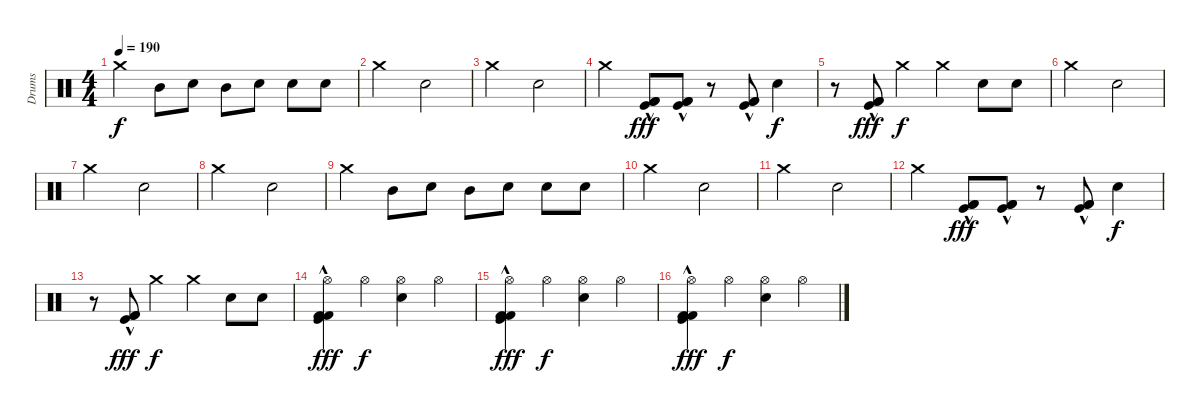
\track ("Drums" "Drums") {instrument percussion}
\staff {score}
\articulation defaults
\ts (4 4)
\tempo 190
\clef neutral
\ks c "Crash medium (hit)".4{dy f} "Mid Tom (hit)".8 "Snare (hit) 2".8 "Mid Tom (hit)".8 "Snare (hit) 2".8 "Snare (hit) 2".8 "Snare (hit) 2".8
|
"Crash medium (hit)".2 "Snare (hit) 2".2 |
"Crash medium (hit)".2 "Snare (hit) 2".2 |
"Crash medium (hit)".4 ("Kick (hit) 2"{hac} "Kick (hit)"{hac} "Kick (hit) 2"{hac}).8{dy fff} ("Kick (hit) 2"{hac} "Kick (hit)"{hac} "Kick (hit) 2"{hac}).8 r.8 ("Kick (hit) 2"{hac} "Kick (hit)"{hac} "Kick (hit) 2"{hac}).8 "Snare (hit) 2".4{dy f} |
r.8 ("Kick (hit) 2"{hac} "Kick (hit)"{hac} "Kick (hit) 2"{hac}).8{dy fff} "Crash medium (hit)".4{dy f} "Crash medium (hit)".4 "Snare (hit) 2".8 "Snare (hit) 2".8 |
"Crash medium (hit)".2 "Snare (hit) 2".2 |
"Crash medium (hit)".2 "Snare (hit) 2".2 |
"Crash medium (hit)".2 "Snare (hit) 2".2 |
"Crash medium (hit)".4 "Mid Tom (hit)".8 "Snare (hit) 2".8 "Mid Tom (hit)".8 "Snare (hit) 2".8 "Snare (hit) 2".8 "Snare (hit) 2".8 |
"Crash medium (hit)".2 "Snare (hit) 2".2 |
"Crash medium (hit)".2 "Snare (hit) 2".2 |
"Crash medium (hit)".4 ("Kick (hit) 2"{hac} "Kick (hit)"{hac} "Kick (hit) 2"{hac}).8{dy fff} ("Kick (hit) 2"{hac} "Kick (hit)"{hac} "Kick (hit) 2"{hac}).8 r.8 ("Kick (hit) 2"{hac} "Kick (hit)"{hac} "Kick (hit) 2"{hac}).8 "Snare (hit) 2".4{dy f} |
r.8 ("Kick (hit) 2"{hac} "Kick (hit)"{hac} "Kick (hit) 2"{hac}).8{dy fff} "Crash medium (hit)".4{dy f} "Crash medium (hit)".4 "Snare (hit) 2".8 "Snare (hit) 2".8 |
("Hi-Hat (open)" "Kick (hit) 2"{hac} "Kick (hit)"{hac} "Kick (hit) 2"{hac}).4{dy fff} "Hi-Hat (open)".4{dy f} ("Hi-Hat (open)" "Snare (hit) 2").4 "Hi-Hat (open)".4 |
("Hi-Hat (open)" "Kick (hit) 2"{hac} "Kick (hit)"{hac} "Kick (hit) 2"{hac}).4{dy fff} "Hi-Hat (open)".4{dy f} ("Hi-Hat (open)" "Snare (hit) 2").4 "Hi-Hat (open)".4 |
("Hi-Hat (open)" "Kick (hit) 2"{hac} "Kick (hit)"{hac} "Kick (hit) 2"{hac}).4{dy fff} "Hi-Hat (open)".4{dy f} ("Hi-Hat (open)" "Snare (hit) 2").4 "Hi-Hat (open)".4
